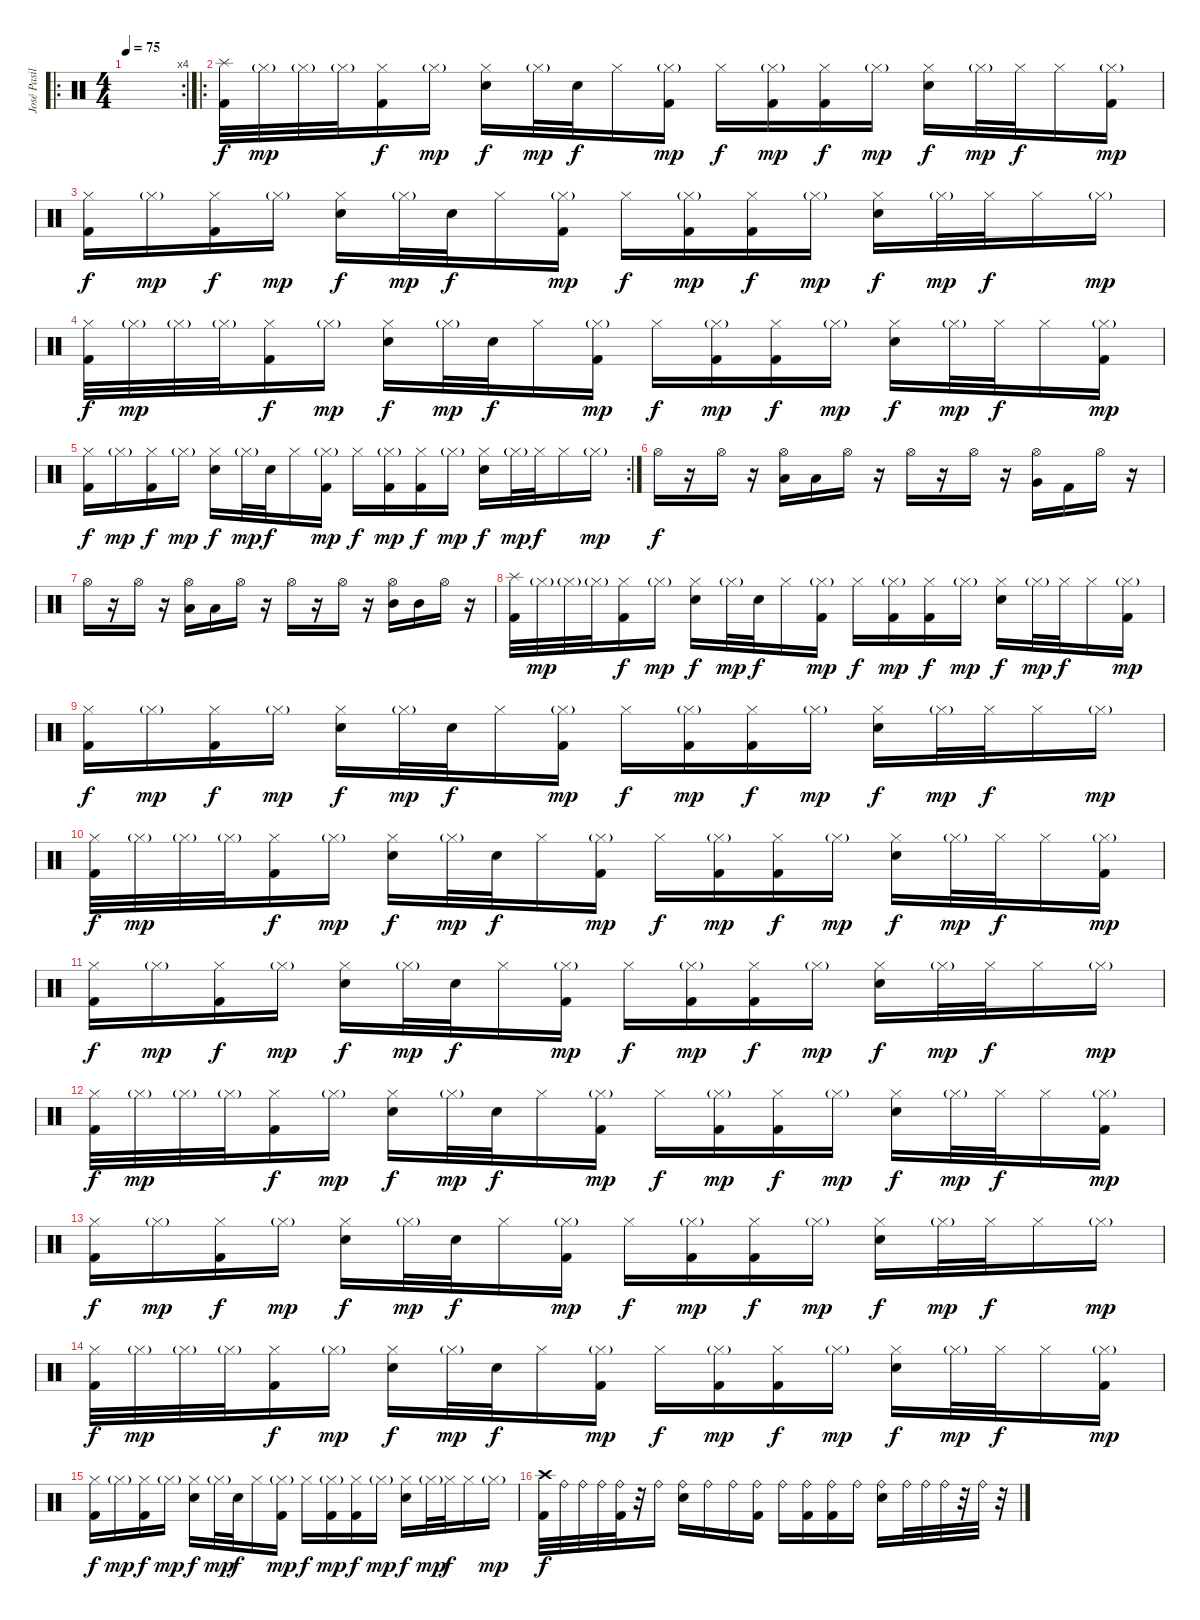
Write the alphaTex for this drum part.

\track ("José Pasillas" "José Pasil") {instrument percussion}
\staff {score}
\articulation defaults
\ro
\rc 4
\ts (4 4)
\tempo 75
\clef neutral
\ks c
|
\ro
("Splash (hit)" "Kick (hit) 2").32 "Hi-Hat (closed)"{g}.32{dy mp} "Hi-Hat (closed)"{g}.32 "Hi-Hat (closed)"{g}.32 ("Hi-Hat (closed)" "Kick (hit) 2").16{dy f} "Hi-Hat (closed)"{g}.16{dy mp} ("Hi-Hat (closed)" "Electric Snare (hit)").16{dy f} "Hi-Hat (closed)"{g}.32{dy mp} "Electric Snare (hit)".32{dy f} "Hi-Hat (closed)".16 ("Hi-Hat (closed)"{g} "Kick (hit) 2").16{dy mp} "Hi-Hat (closed)".16{dy f} ("Hi-Hat (closed)"{g} "Kick (hit) 2").16{dy mp} ("Hi-Hat (closed)" "Kick (hit) 2").16{dy f} "Hi-Hat (closed)"{g}.16{dy mp} ("Hi-Hat (closed)" "Electric Snare (hit)").16{dy f} "Hi-Hat (closed)"{g}.32{dy mp} "Hi-Hat (closed)".32{dy f} "Hi-Hat (closed)".16 ("Hi-Hat (closed)"{g} "Kick (hit) 2").16{dy mp} |
("Hi-Hat (closed)" "Kick (hit) 2").16{dy f} "Hi-Hat (closed)"{g}.16{dy mp} ("Hi-Hat (closed)" "Kick (hit) 2").16{dy f} "Hi-Hat (closed)"{g}.16{dy mp} ("Hi-Hat (closed)" "Electric Snare (hit)").16{dy f} "Hi-Hat (closed)"{g}.32{dy mp} "Electric Snare (hit)".32{dy f} "Hi-Hat (closed)".16 ("Hi-Hat (closed)"{g} "Kick (hit) 2").16{dy mp} "Hi-Hat (closed)".16{dy f} ("Hi-Hat (closed)"{g} "Kick (hit) 2").16{dy mp} ("Hi-Hat (closed)" "Kick (hit) 2").16{dy f} "Hi-Hat (closed)"{g}.16{dy mp} ("Hi-Hat (closed)" "Electric Snare (hit)").16{dy f} "Hi-Hat (closed)"{g}.32{dy mp} "Hi-Hat (closed)".32{dy f} "Hi-Hat (closed)".16 "Hi-Hat (closed)"{g}.16{dy mp} |
("Hi-Hat (closed)" "Kick (hit) 2").32{dy f} "Hi-Hat (closed)"{g}.32{dy mp} "Hi-Hat (closed)"{g}.32 "Hi-Hat (closed)"{g}.32 ("Hi-Hat (closed)" "Kick (hit) 2").16{dy f} "Hi-Hat (closed)"{g}.16{dy mp} ("Hi-Hat (closed)" "Electric Snare (hit)").16{dy f} "Hi-Hat (closed)"{g}.32{dy mp} "Electric Snare (hit)".32{dy f} "Hi-Hat (closed)".16 ("Hi-Hat (closed)"{g} "Kick (hit) 2").16{dy mp} "Hi-Hat (closed)".16{dy f} ("Hi-Hat (closed)"{g} "Kick (hit) 2").16{dy mp} ("Hi-Hat (closed)" "Kick (hit) 2").16{dy f} "Hi-Hat (closed)"{g}.16{dy mp} ("Hi-Hat (closed)" "Electric Snare (hit)").16{dy f} "Hi-Hat (closed)"{g}.32{dy mp} "Hi-Hat (closed)".32{dy f} "Hi-Hat (closed)".16 ("Hi-Hat (closed)"{g} "Kick (hit) 2").16{dy mp} |
\rc 2
("Hi-Hat (closed)" "Kick (hit) 2").16{dy f} "Hi-Hat (closed)"{g}.16{dy mp} ("Hi-Hat (closed)" "Kick (hit) 2").16{dy f} "Hi-Hat (closed)"{g}.16{dy mp} ("Hi-Hat (closed)" "Electric Snare (hit)").16{dy f} "Hi-Hat (closed)"{g}.32{dy mp} "Electric Snare (hit)".32{dy f} "Hi-Hat (closed)".16 ("Hi-Hat (closed)"{g} "Kick (hit) 2").16{dy mp} "Hi-Hat (closed)".16{dy f} ("Hi-Hat (closed)"{g} "Kick (hit) 2").16{dy mp} ("Hi-Hat (closed)" "Kick (hit) 2").16{dy f} "Hi-Hat (closed)"{g}.16{dy mp} ("Hi-Hat (closed)" "Electric Snare (hit)").16{dy f} "Hi-Hat (closed)"{g}.32{dy mp} "Hi-Hat (closed)".32{dy f} "Hi-Hat (closed)".16 "Hi-Hat (closed)"{g}.16{dy mp} |
"Hi-Hat (open)".16{dy f} r.16 "Hi-Hat (open)".16 r.16 ("Hi-Hat (open)" "Low Floor Tom (hit)").16 "Low Floor Tom (hit)".16 "Hi-Hat (open)".16 r.16 "Hi-Hat (open)".16 r.16 "Hi-Hat (open)".16 r.16 ("Hi-Hat (open)" "Very Low Tom (hit)").16 "Kick (hit) 2".16 "Hi-Hat (open)".16 r.16 |
"Hi-Hat (open)".16 r.16 "Hi-Hat (open)".16 r.16 ("Hi-Hat (open)" "Low Tom (hit)").16 "Low Tom (hit)".16 "Hi-Hat (open)".16 r.16 "Hi-Hat (open)".16 r.16 "Hi-Hat (open)".16 r.16 ("Hi-Hat (open)" "Mid Tom (hit)").16 "Mid Tom (hit)".16 "Hi-Hat (open)".16 r.16 |
("Splash (hit)" "Kick (hit) 2").32 "Hi-Hat (closed)"{g}.32{dy mp} "Hi-Hat (closed)"{g}.32 "Hi-Hat (closed)"{g}.32 ("Hi-Hat (closed)" "Kick (hit) 2").16{dy f} "Hi-Hat (closed)"{g}.16{dy mp} ("Hi-Hat (closed)" "Electric Snare (hit)").16{dy f} "Hi-Hat (closed)"{g}.32{dy mp} "Electric Snare (hit)".32{dy f} "Hi-Hat (closed)".16 ("Hi-Hat (closed)"{g} "Kick (hit) 2").16{dy mp} "Hi-Hat (closed)".16{dy f} ("Hi-Hat (closed)"{g} "Kick (hit) 2").16{dy mp} ("Hi-Hat (closed)" "Kick (hit) 2").16{dy f} "Hi-Hat (closed)"{g}.16{dy mp} ("Hi-Hat (closed)" "Electric Snare (hit)").16{dy f} "Hi-Hat (closed)"{g}.32{dy mp} "Hi-Hat (closed)".32{dy f} "Hi-Hat (closed)".16 ("Hi-Hat (closed)"{g} "Kick (hit) 2").16{dy mp} |
("Hi-Hat (closed)" "Kick (hit) 2").16{dy f} "Hi-Hat (closed)"{g}.16{dy mp} ("Hi-Hat (closed)" "Kick (hit) 2").16{dy f} "Hi-Hat (closed)"{g}.16{dy mp} ("Hi-Hat (closed)" "Electric Snare (hit)").16{dy f} "Hi-Hat (closed)"{g}.32{dy mp} "Electric Snare (hit)".32{dy f} "Hi-Hat (closed)".16 ("Hi-Hat (closed)"{g} "Kick (hit) 2").16{dy mp} "Hi-Hat (closed)".16{dy f} ("Hi-Hat (closed)"{g} "Kick (hit) 2").16{dy mp} ("Hi-Hat (closed)" "Kick (hit) 2").16{dy f} "Hi-Hat (closed)"{g}.16{dy mp} ("Hi-Hat (closed)" "Electric Snare (hit)").16{dy f} "Hi-Hat (closed)"{g}.32{dy mp} "Hi-Hat (closed)".32{dy f} "Hi-Hat (closed)".16 "Hi-Hat (closed)"{g}.16{dy mp} |
("Hi-Hat (closed)" "Kick (hit) 2").32{dy f} "Hi-Hat (closed)"{g}.32{dy mp} "Hi-Hat (closed)"{g}.32 "Hi-Hat (closed)"{g}.32 ("Hi-Hat (closed)" "Kick (hit) 2").16{dy f} "Hi-Hat (closed)"{g}.16{dy mp} ("Hi-Hat (closed)" "Electric Snare (hit)").16{dy f} "Hi-Hat (closed)"{g}.32{dy mp} "Electric Snare (hit)".32{dy f} "Hi-Hat (closed)".16 ("Hi-Hat (closed)"{g} "Kick (hit) 2").16{dy mp} "Hi-Hat (closed)".16{dy f} ("Hi-Hat (closed)"{g} "Kick (hit) 2").16{dy mp} ("Hi-Hat (closed)" "Kick (hit) 2").16{dy f} "Hi-Hat (closed)"{g}.16{dy mp} ("Hi-Hat (closed)" "Electric Snare (hit)").16{dy f} "Hi-Hat (closed)"{g}.32{dy mp} "Hi-Hat (closed)".32{dy f} "Hi-Hat (closed)".16 ("Hi-Hat (closed)"{g} "Kick (hit) 2").16{dy mp} |
("Hi-Hat (closed)" "Kick (hit) 2").16{dy f} "Hi-Hat (closed)"{g}.16{dy mp} ("Hi-Hat (closed)" "Kick (hit) 2").16{dy f} "Hi-Hat (closed)"{g}.16{dy mp} ("Hi-Hat (closed)" "Electric Snare (hit)").16{dy f} "Hi-Hat (closed)"{g}.32{dy mp} "Electric Snare (hit)".32{dy f} "Hi-Hat (closed)".16 ("Hi-Hat (closed)"{g} "Kick (hit) 2").16{dy mp} "Hi-Hat (closed)".16{dy f} ("Hi-Hat (closed)"{g} "Kick (hit) 2").16{dy mp} ("Hi-Hat (closed)" "Kick (hit) 2").16{dy f} "Hi-Hat (closed)"{g}.16{dy mp} ("Hi-Hat (closed)" "Electric Snare (hit)").16{dy f} "Hi-Hat (closed)"{g}.32{dy mp} "Hi-Hat (closed)".32{dy f} "Hi-Hat (closed)".16 "Hi-Hat (closed)"{g}.16{dy mp} |
("Hi-Hat (closed)" "Kick (hit) 2").32{dy f} "Hi-Hat (closed)"{g}.32{dy mp} "Hi-Hat (closed)"{g}.32 "Hi-Hat (closed)"{g}.32 ("Hi-Hat (closed)" "Kick (hit) 2").16{dy f} "Hi-Hat (closed)"{g}.16{dy mp} ("Hi-Hat (closed)" "Electric Snare (hit)").16{dy f} "Hi-Hat (closed)"{g}.32{dy mp} "Electric Snare (hit)".32{dy f} "Hi-Hat (closed)".16 ("Hi-Hat (closed)"{g} "Kick (hit) 2").16{dy mp} "Hi-Hat (closed)".16{dy f} ("Hi-Hat (closed)"{g} "Kick (hit) 2").16{dy mp} ("Hi-Hat (closed)" "Kick (hit) 2").16{dy f} "Hi-Hat (closed)"{g}.16{dy mp} ("Hi-Hat (closed)" "Electric Snare (hit)").16{dy f} "Hi-Hat (closed)"{g}.32{dy mp} "Hi-Hat (closed)".32{dy f} "Hi-Hat (closed)".16 ("Hi-Hat (closed)"{g} "Kick (hit) 2").16{dy mp} |
("Hi-Hat (closed)" "Kick (hit) 2").16{dy f} "Hi-Hat (closed)"{g}.16{dy mp} ("Hi-Hat (closed)" "Kick (hit) 2").16{dy f} "Hi-Hat (closed)"{g}.16{dy mp} ("Hi-Hat (closed)" "Electric Snare (hit)").16{dy f} "Hi-Hat (closed)"{g}.32{dy mp} "Electric Snare (hit)".32{dy f} "Hi-Hat (closed)".16 ("Hi-Hat (closed)"{g} "Kick (hit) 2").16{dy mp} "Hi-Hat (closed)".16{dy f} ("Hi-Hat (closed)"{g} "Kick (hit) 2").16{dy mp} ("Hi-Hat (closed)" "Kick (hit) 2").16{dy f} "Hi-Hat (closed)"{g}.16{dy mp} ("Hi-Hat (closed)" "Electric Snare (hit)").16{dy f} "Hi-Hat (closed)"{g}.32{dy mp} "Hi-Hat (closed)".32{dy f} "Hi-Hat (closed)".16 "Hi-Hat (closed)"{g}.16{dy mp} |
("Hi-Hat (closed)" "Kick (hit) 2").32{dy f} "Hi-Hat (closed)"{g}.32{dy mp} "Hi-Hat (closed)"{g}.32 "Hi-Hat (closed)"{g}.32 ("Hi-Hat (closed)" "Kick (hit) 2").16{dy f} "Hi-Hat (closed)"{g}.16{dy mp} ("Hi-Hat (closed)" "Electric Snare (hit)").16{dy f} "Hi-Hat (closed)"{g}.32{dy mp} "Electric Snare (hit)".32{dy f} "Hi-Hat (closed)".16 ("Hi-Hat (closed)"{g} "Kick (hit) 2").16{dy mp} "Hi-Hat (closed)".16{dy f} ("Hi-Hat (closed)"{g} "Kick (hit) 2").16{dy mp} ("Hi-Hat (closed)" "Kick (hit) 2").16{dy f} "Hi-Hat (closed)"{g}.16{dy mp} ("Hi-Hat (closed)" "Electric Snare (hit)").16{dy f} "Hi-Hat (closed)"{g}.32{dy mp} "Hi-Hat (closed)".32{dy f} "Hi-Hat (closed)".16 ("Hi-Hat (closed)"{g} "Kick (hit) 2").16{dy mp} |
("Hi-Hat (closed)" "Kick (hit) 2").16{dy f} "Hi-Hat (closed)"{g}.16{dy mp} ("Hi-Hat (closed)" "Kick (hit) 2").16{dy f} "Hi-Hat (closed)"{g}.16{dy mp} ("Hi-Hat (closed)" "Electric Snare (hit)").16{dy f} "Hi-Hat (closed)"{g}.32{dy mp} "Electric Snare (hit)".32{dy f} "Hi-Hat (closed)".16 ("Hi-Hat (closed)"{g} "Kick (hit) 2").16{dy mp} "Hi-Hat (closed)".16{dy f} ("Hi-Hat (closed)"{g} "Kick (hit) 2").16{dy mp} ("Hi-Hat (closed)" "Kick (hit) 2").16{dy f} "Hi-Hat (closed)"{g}.16{dy mp} ("Hi-Hat (closed)" "Electric Snare (hit)").16{dy f} "Hi-Hat (closed)"{g}.32{dy mp} "Hi-Hat (closed)".32{dy f} "Hi-Hat (closed)".16 "Hi-Hat (closed)"{g}.16{dy mp} |
("Crash high (hit)" "Kick (hit) 2").32{dy f} "Ride (bell)".32 "Ride (bell)".32 "Ride (bell)".32 ("Ride (bell)" "Kick (hit) 2").32 r.32 "Ride (bell)".16 ("Ride (bell)" "Electric Snare (hit)").16 "Ride (bell)".16 "Ride (bell)".16 ("Ride (bell)" "Kick (hit) 2").16 "Ride (bell)".16 ("Ride (bell)" "Kick (hit) 2").16 ("Ride (bell)" "Kick (hit) 2").16 "Ride (bell)".16 ("Ride (bell)" "Electric Snare (hit)").16 "Ride (bell)".32 "Ride (bell)".32 "Ride (bell)".32 r.32 "Ride (bell)".32 r.32
